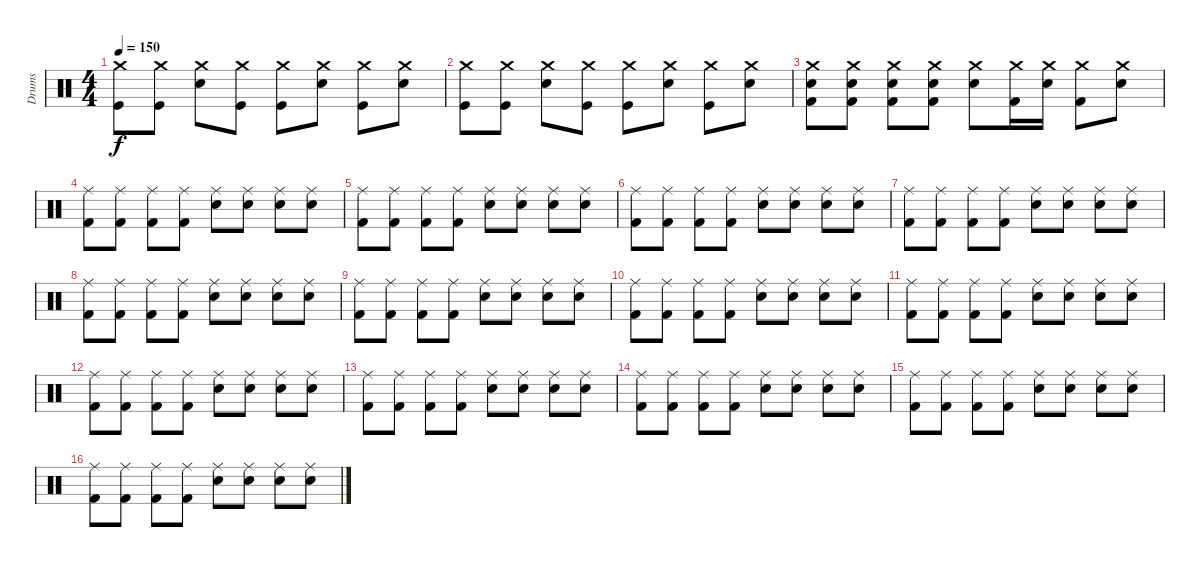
\track ("Drums" "Drums") {instrument percussion}
\staff {score}
\articulation defaults
\ts (4 4)
\tempo 150
\clef neutral
\ks c
("Crash medium (hit)" "Kick (hit)").8{dy f} ("Crash medium (hit)" "Kick (hit)").8 ("Crash medium (hit)" "Electric Snare (hit)").8 ("Crash medium (hit)" "Kick (hit)").8 ("Crash medium (hit)" "Kick (hit)").8 ("Crash medium (hit)" "Electric Snare (hit)").8 ("Crash medium (hit)" "Kick (hit)").8 ("Crash medium (hit)" "Electric Snare (hit)").8 |
("Crash medium (hit)" "Kick (hit)").8 ("Crash medium (hit)" "Kick (hit)").8 ("Crash medium (hit)" "Electric Snare (hit)").8 ("Crash medium (hit)" "Kick (hit)").8 ("Crash medium (hit)" "Kick (hit)").8 ("Crash medium (hit)" "Electric Snare (hit)").8 ("Crash medium (hit)" "Kick (hit)").8 ("Crash medium (hit)" "Electric Snare (hit)").8 |
("Crash medium (hit)" "Snare (hit) 2" "Kick (hit) 2").8 ("Crash medium (hit)" "Snare (hit) 2" "Kick (hit) 2").8 ("Crash medium (hit)" "Snare (hit) 2" "Kick (hit) 2").8 ("Crash medium (hit)" "Snare (hit) 2" "Kick (hit) 2").8 ("Crash medium (hit)" "Snare (hit) 2").8 ("Crash medium (hit)" "Kick (hit) 2").16 ("Crash medium (hit)" "Snare (hit) 2").16 ("Crash medium (hit)" "Kick (hit) 2").8 ("Crash medium (hit)" "Snare (hit) 2").8 |
("Ride (middle)" "Kick (hit) 2").8 ("Ride (middle)" "Kick (hit) 2").8 ("Ride (middle)" "Kick (hit) 2").8 ("Ride (middle)" "Kick (hit) 2").8 ("Ride (middle)" "Snare (hit) 2").8 ("Ride (middle)" "Snare (hit) 2").8 ("Ride (middle)" "Snare (hit) 2").8 ("Ride (middle)" "Snare (hit) 2").8 |
("Ride (middle)" "Kick (hit) 2").8 ("Ride (middle)" "Kick (hit) 2").8 ("Ride (middle)" "Kick (hit) 2").8 ("Ride (middle)" "Kick (hit) 2").8 ("Ride (middle)" "Snare (hit) 2").8 ("Ride (middle)" "Snare (hit) 2").8 ("Ride (middle)" "Snare (hit) 2").8 ("Ride (middle)" "Snare (hit) 2").8 |
("Ride (middle)" "Kick (hit) 2").8 ("Ride (middle)" "Kick (hit) 2").8 ("Ride (middle)" "Kick (hit) 2").8 ("Ride (middle)" "Kick (hit) 2").8 ("Ride (middle)" "Snare (hit) 2").8 ("Ride (middle)" "Snare (hit) 2").8 ("Ride (middle)" "Snare (hit) 2").8 ("Ride (middle)" "Snare (hit) 2").8 |
("Ride (middle)" "Kick (hit) 2").8 ("Ride (middle)" "Kick (hit) 2").8 ("Ride (middle)" "Kick (hit) 2").8 ("Ride (middle)" "Kick (hit) 2").8 ("Ride (middle)" "Snare (hit) 2").8 ("Ride (middle)" "Snare (hit) 2").8 ("Ride (middle)" "Snare (hit) 2").8 ("Ride (middle)" "Snare (hit) 2").8 |
("Ride (middle)" "Kick (hit) 2").8 ("Ride (middle)" "Kick (hit) 2").8 ("Ride (middle)" "Kick (hit) 2").8 ("Ride (middle)" "Kick (hit) 2").8 ("Ride (middle)" "Snare (hit) 2").8 ("Ride (middle)" "Snare (hit) 2").8 ("Ride (middle)" "Snare (hit) 2").8 ("Ride (middle)" "Snare (hit) 2").8 |
("Ride (middle)" "Kick (hit) 2").8 ("Ride (middle)" "Kick (hit) 2").8 ("Ride (middle)" "Kick (hit) 2").8 ("Ride (middle)" "Kick (hit) 2").8 ("Ride (middle)" "Snare (hit) 2").8 ("Ride (middle)" "Snare (hit) 2").8 ("Ride (middle)" "Snare (hit) 2").8 ("Ride (middle)" "Snare (hit) 2").8 |
("Ride (middle)" "Kick (hit) 2").8 ("Ride (middle)" "Kick (hit) 2").8 ("Ride (middle)" "Kick (hit) 2").8 ("Ride (middle)" "Kick (hit) 2").8 ("Ride (middle)" "Snare (hit) 2").8 ("Ride (middle)" "Snare (hit) 2").8 ("Ride (middle)" "Snare (hit) 2").8 ("Ride (middle)" "Snare (hit) 2").8 |
("Ride (middle)" "Kick (hit) 2").8 ("Ride (middle)" "Kick (hit) 2").8 ("Ride (middle)" "Kick (hit) 2").8 ("Ride (middle)" "Kick (hit) 2").8 ("Ride (middle)" "Snare (hit) 2").8 ("Ride (middle)" "Snare (hit) 2").8 ("Ride (middle)" "Snare (hit) 2").8 ("Ride (middle)" "Snare (hit) 2").8 |
("Ride (middle)" "Kick (hit) 2").8 ("Ride (middle)" "Kick (hit) 2").8 ("Ride (middle)" "Kick (hit) 2").8 ("Ride (middle)" "Kick (hit) 2").8 ("Ride (middle)" "Snare (hit) 2").8 ("Ride (middle)" "Snare (hit) 2").8 ("Ride (middle)" "Snare (hit) 2").8 ("Ride (middle)" "Snare (hit) 2").8 |
("Ride (middle)" "Kick (hit) 2").8 ("Ride (middle)" "Kick (hit) 2").8 ("Ride (middle)" "Kick (hit) 2").8 ("Ride (middle)" "Kick (hit) 2").8 ("Ride (middle)" "Snare (hit) 2").8 ("Ride (middle)" "Snare (hit) 2").8 ("Ride (middle)" "Snare (hit) 2").8 ("Ride (middle)" "Snare (hit) 2").8 |
("Ride (middle)" "Kick (hit) 2").8 ("Ride (middle)" "Kick (hit) 2").8 ("Ride (middle)" "Kick (hit) 2").8 ("Ride (middle)" "Kick (hit) 2").8 ("Ride (middle)" "Snare (hit) 2").8 ("Ride (middle)" "Snare (hit) 2").8 ("Ride (middle)" "Snare (hit) 2").8 ("Ride (middle)" "Snare (hit) 2").8 |
("Ride (middle)" "Kick (hit) 2").8 ("Ride (middle)" "Kick (hit) 2").8 ("Ride (middle)" "Kick (hit) 2").8 ("Ride (middle)" "Kick (hit) 2").8 ("Ride (middle)" "Snare (hit) 2").8 ("Ride (middle)" "Snare (hit) 2").8 ("Ride (middle)" "Snare (hit) 2").8 ("Ride (middle)" "Snare (hit) 2").8 |
("Ride (middle)" "Kick (hit) 2").8 ("Ride (middle)" "Kick (hit) 2").8 ("Ride (middle)" "Kick (hit) 2").8 ("Ride (middle)" "Kick (hit) 2").8 ("Ride (middle)" "Snare (hit) 2").8 ("Ride (middle)" "Snare (hit) 2").8 ("Ride (middle)" "Snare (hit) 2").8 ("Ride (middle)" "Snare (hit) 2").8
